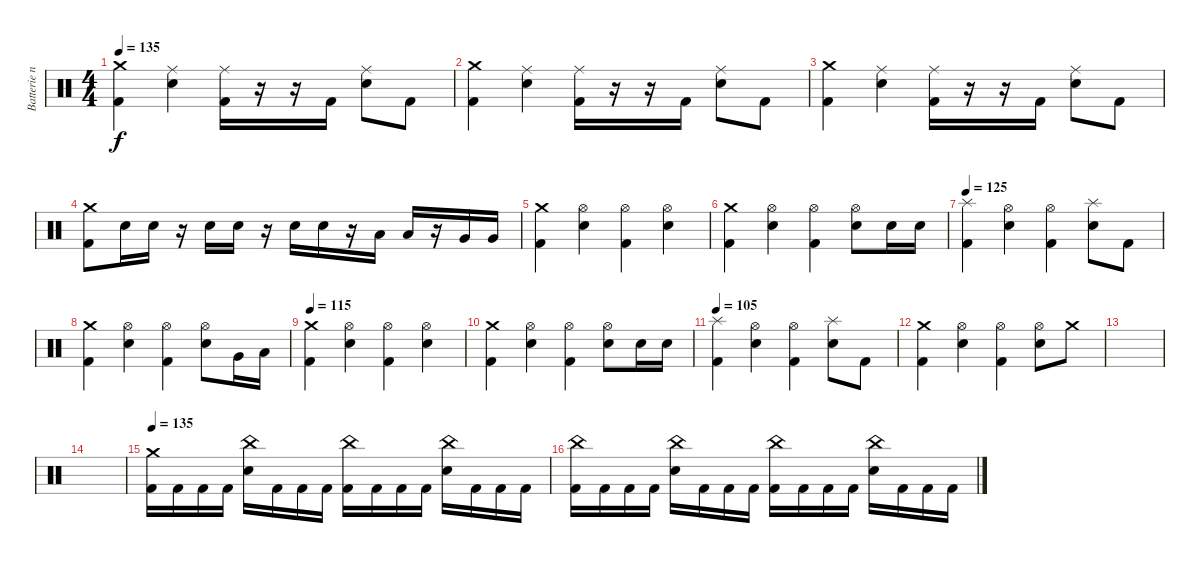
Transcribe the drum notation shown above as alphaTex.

\track ("Batterie n°3" "Batterie n") {instrument percussion}
\staff {score}
\articulation defaults
\ts (4 4)
\tempo 135
\clef neutral
\ks c
("Crash medium (hit)" "Kick (hit) 2").4{dy f} ("Ride (middle)" "Snare (hit) 2").4 ("Ride (middle)" "Kick (hit) 2").16 r.16 r.16 "Kick (hit) 2".16 ("Ride (middle)" "Snare (hit) 2").8 "Kick (hit) 2".8 |
("Crash medium (hit)" "Kick (hit) 2").4 ("Ride (middle)" "Snare (hit) 2").4 ("Ride (middle)" "Kick (hit) 2").16 r.16 r.16 "Kick (hit) 2".16 ("Ride (middle)" "Snare (hit) 2").8 "Kick (hit) 2".8 |
("Crash medium (hit)" "Kick (hit) 2").4 ("Ride (middle)" "Snare (hit) 2").4 ("Ride (middle)" "Kick (hit) 2").16 r.16 r.16 "Kick (hit) 2".16 ("Ride (middle)" "Snare (hit) 2").8 "Kick (hit) 2".8 |
("Crash medium (hit)" "Kick (hit) 2").8 "Snare (hit) 2".16 "Snare (hit) 2".16 r.16 "Snare (hit) 2".16 "Snare (hit) 2".16 r.16 "Snare (hit) 2".16 "Snare (hit) 2".16 r.16 "Low Tom (hit)".16 "Low Tom (hit)".16 r.16 "Very Low Tom (hit)".16 "Very Low Tom (hit)".16 |
("Crash medium (hit)" "Kick (hit) 2").4 ("Hi-Hat (open)" "Snare (hit) 2").4 ("Hi-Hat (open)" "Kick (hit) 2").4 ("Hi-Hat (open)" "Snare (hit) 2").4 |
("Crash medium (hit)" "Kick (hit) 2").4 ("Hi-Hat (open)" "Snare (hit) 2").4 ("Hi-Hat (open)" "Kick (hit) 2").4 ("Hi-Hat (open)" "Snare (hit) 2").8 "Snare (hit) 2".16 "Snare (hit) 2".16 |
\tempo 125
("Splash (hit)" "Kick (hit) 2").4 ("Hi-Hat (open)" "Snare (hit) 2").4 ("Hi-Hat (open)" "Kick (hit) 2").4 ("Splash (hit)" "Snare (hit) 2").8 "Kick (hit) 2".8 |
("Crash medium (hit)" "Kick (hit) 2").4 ("Hi-Hat (open)" "Snare (hit) 2").4 ("Hi-Hat (open)" "Kick (hit) 2").4 ("Hi-Hat (open)" "Electric Snare (hit)").8 "Very Low Tom (hit)".16 "Low Tom (hit)".16 |
\tempo 115
("Crash medium (hit)" "Kick (hit) 2").4 ("Hi-Hat (open)" "Snare (hit) 2").4 ("Hi-Hat (open)" "Kick (hit) 2").4 ("Hi-Hat (open)" "Snare (hit) 2").4 |
("Crash medium (hit)" "Kick (hit) 2").4 ("Hi-Hat (open)" "Snare (hit) 2").4 ("Hi-Hat (open)" "Kick (hit) 2").4 ("Hi-Hat (open)" "Snare (hit) 2").8 "Snare (hit) 2".16 "Snare (hit) 2".16 |
\tempo 105
("Splash (hit)" "Kick (hit) 2").4 ("Hi-Hat (open)" "Snare (hit) 2").4 ("Hi-Hat (open)" "Kick (hit) 2").4 ("Splash (hit)" "Snare (hit) 2").8 "Kick (hit) 2".8 |
("Crash medium (hit)" "Kick (hit) 2").4 ("Hi-Hat (open)" "Snare (hit) 2").4 ("Hi-Hat (open)" "Kick (hit) 2").4 ("Hi-Hat (open)" "Snare (hit) 2").8 "Crash medium (hit)".8 |
|
|
\tempo 135
("Crash medium (hit)" "Kick (hit) 2").16 "Kick (hit) 2".16 "Kick (hit) 2".16 "Kick (hit) 2".16 ("China (hit)" "Snare (hit) 2").16 "Kick (hit) 2".16 "Kick (hit) 2".16 "Kick (hit) 2".16 ("China (hit)" "Kick (hit) 2").16 "Kick (hit) 2".16 "Kick (hit) 2".16 "Kick (hit) 2".16 ("China (hit)" "Snare (hit) 2").16 "Kick (hit) 2".16 "Kick (hit) 2".16 "Kick (hit) 2".16 |
("China (hit)" "Kick (hit) 2").16 "Kick (hit) 2".16 "Kick (hit) 2".16 "Kick (hit) 2".16 ("China (hit)" "Snare (hit) 2").16 "Kick (hit) 2".16 "Kick (hit) 2".16 "Kick (hit) 2".16 ("China (hit)" "Kick (hit) 2").16 "Kick (hit) 2".16 "Kick (hit) 2".16 "Kick (hit) 2".16 ("China (hit)" "Snare (hit) 2").16 "Kick (hit) 2".16 "Kick (hit) 2".16 "Kick (hit) 2".16
